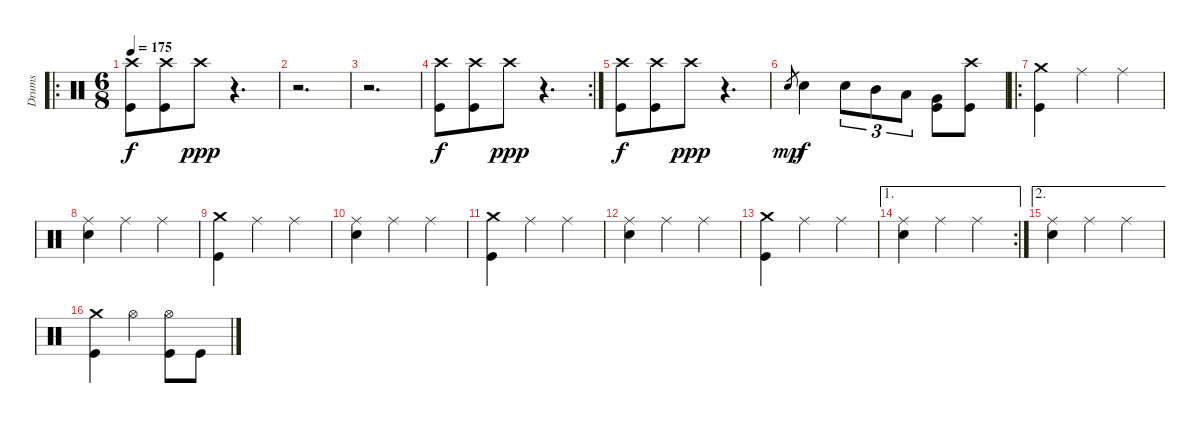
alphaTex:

\track ("Drums" "Drums") {instrument percussion}
\staff {score}
\articulation defaults
\ro
\ts (6 8)
\tempo 175
\clef neutral
\ks c
("Crash high (hit)" "Kick (hit)").8{dy f} ("Crash high (hit)" "Kick (hit)").8 "Crash high (hit)".8{dy ppp} r.4{d} |
r.2{d} |
r.2{d} |
\rc 2
("Crash high (hit)" "Kick (hit)").8{dy f} ("Crash high (hit)" "Kick (hit)").8 "Crash high (hit)".8{dy ppp} r.4{d} |
("Crash high (hit)" "Kick (hit)").8{dy f} ("Crash high (hit)" "Kick (hit)").8 "Crash high (hit)".8{dy ppp} r.4{d} |
"Electric Snare (hit)".8{gr dy mp} "Electric Snare (hit)".4{dy f} "Electric Snare (hit)".8{tu (3 2)} "Mid Tom (hit)".8{tu (3 2)} "Low Tom (hit)".8{tu (3 2)} ("Very Low Tom (hit)" "Kick (hit)").8 ("Crash high (hit)" "Kick (hit)").8 |
\ro
("Crash medium (hit)" "Kick (hit)").4 "Ride (middle)".4 "Ride (middle)".4 |
("Ride (middle)" "Electric Snare (hit)").4 "Ride (middle)".4 "Ride (middle)".4 |
("Crash medium (hit)" "Kick (hit)").4 "Ride (middle)".4 "Ride (middle)".4 |
("Ride (middle)" "Electric Snare (hit)").4 "Ride (middle)".4 "Ride (middle)".4 |
("Crash medium (hit)" "Kick (hit)").4 "Ride (middle)".4 "Ride (middle)".4 |
("Ride (middle)" "Electric Snare (hit)").4 "Ride (middle)".4 "Ride (middle)".4 |
("Crash medium (hit)" "Kick (hit)").4 "Ride (middle)".4 "Ride (middle)".4 |
\ae 1
\rc 2
("Ride (middle)" "Electric Snare (hit)").4 "Ride (middle)".4 "Ride (middle)".4 |
\ae 2
("Ride (middle)" "Electric Snare (hit)").4 "Ride (middle)".4 "Ride (middle)".4 |
("Crash medium (hit)" "Kick (hit)").4 "Hi-Hat (open)".4 ("Hi-Hat (open)" "Kick (hit)").8 "Kick (hit)".8
